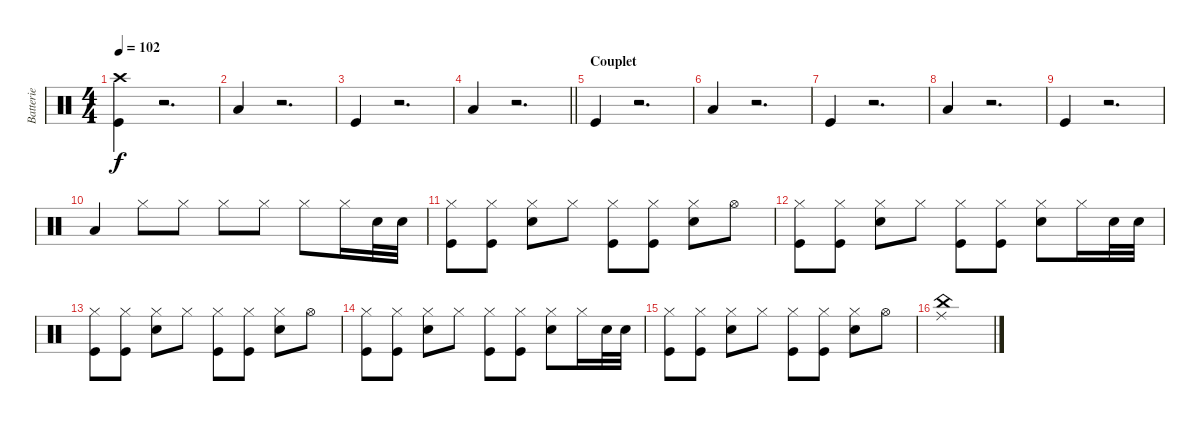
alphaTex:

\track ("Batterie" "Batterie") {instrument percussion}
\staff {score}
\articulation defaults
\ts (4 4)
\tempo 102
\clef neutral
\ks c
("Kick (hit)" "Crash high (hit)").4{dy f} r.2{d} |
"Low Floor Tom (hit)".4 r.2{d} |
"Kick (hit)".4 r.2{d} |
\barLineRight lightlight "Low Floor Tom (hit)".4
r.2{d} |
\section ("" "Couplet")
"Kick (hit)".4 r.2{d} |
"Low Floor Tom (hit)".4 r.2{d} |
"Kick (hit)".4 r.2{d} |
"Low Floor Tom (hit)".4 r.2{d} |
"Kick (hit)".4 r.2{d} |
"Low Floor Tom (hit)".4 "Hi-Hat (closed)".8 "Hi-Hat (closed)".8 "Hi-Hat (closed)".8 "Hi-Hat (closed)".8 "Hi-Hat (closed)".8 "Hi-Hat (closed)".16 "Snare (hit) 2".32 "Snare (hit) 2".32 |
("Kick (hit)" "Hi-Hat (closed)").8 ("Kick (hit)" "Hi-Hat (closed)").8 ("Snare (hit) 2" "Hi-Hat (closed)").8 "Hi-Hat (closed)".8 ("Kick (hit)" "Hi-Hat (closed)").8 ("Kick (hit)" "Hi-Hat (closed)").8 ("Snare (hit) 2" "Hi-Hat (closed)").8 "Hi-Hat (open)".8 |
("Kick (hit)" "Hi-Hat (closed)").8 ("Kick (hit)" "Hi-Hat (closed)").8 ("Snare (hit) 2" "Hi-Hat (closed)").8 "Hi-Hat (closed)".8 ("Kick (hit)" "Hi-Hat (closed)").8 ("Kick (hit)" "Hi-Hat (closed)").8 ("Snare (hit) 2" "Hi-Hat (closed)").8 "Hi-Hat (closed)".16 "Snare (hit) 2".32 "Snare (hit) 2".32 |
("Kick (hit)" "Hi-Hat (closed)").8 ("Kick (hit)" "Hi-Hat (closed)").8 ("Snare (hit) 2" "Hi-Hat (closed)").8 "Hi-Hat (closed)".8 ("Kick (hit)" "Hi-Hat (closed)").8 ("Kick (hit)" "Hi-Hat (closed)").8 ("Snare (hit) 2" "Hi-Hat (closed)").8 "Hi-Hat (open)".8 |
("Kick (hit)" "Hi-Hat (closed)").8 ("Kick (hit)" "Hi-Hat (closed)").8 ("Snare (hit) 2" "Hi-Hat (closed)").8 "Hi-Hat (closed)".8 ("Kick (hit)" "Hi-Hat (closed)").8 ("Kick (hit)" "Hi-Hat (closed)").8 ("Snare (hit) 2" "Hi-Hat (closed)").8 "Hi-Hat (closed)".16 "Snare (hit) 2".32 "Snare (hit) 2".32 |
("Kick (hit)" "Hi-Hat (closed)").8 ("Kick (hit)" "Hi-Hat (closed)").8 ("Snare (hit) 2" "Hi-Hat (closed)").8 "Hi-Hat (closed)".8 ("Kick (hit)" "Hi-Hat (closed)").8 ("Kick (hit)" "Hi-Hat (closed)").8 ("Snare (hit) 2" "Hi-Hat (closed)").8 "Hi-Hat (open)".8 |
("Ride (middle)" "China (hit)").1
